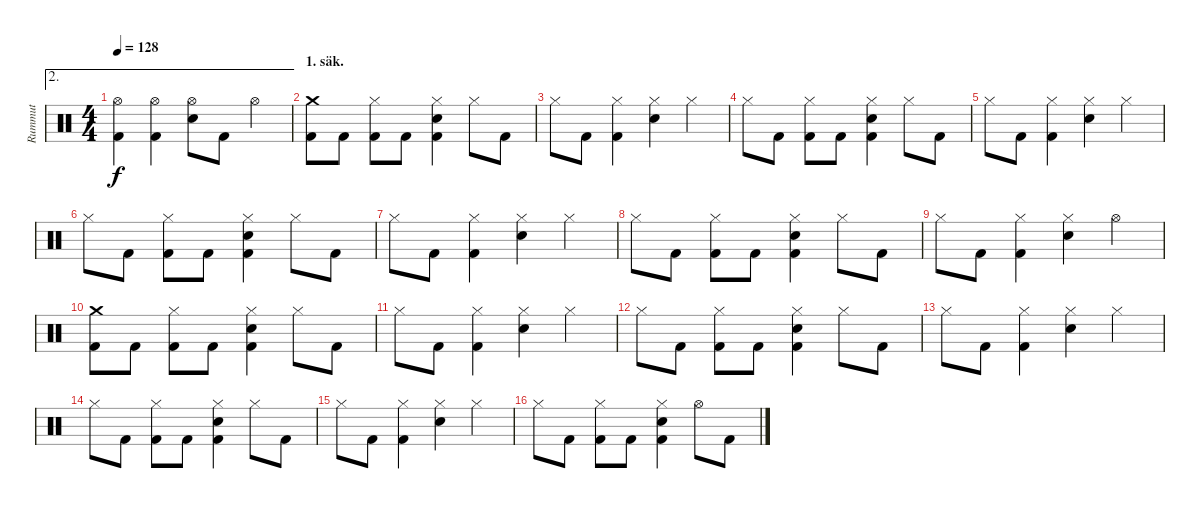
\track ("Rummut" "Rummut") {instrument percussion}
\staff {score}
\articulation defaults
\ae 2
\ts (4 4)
\tempo 128
\clef neutral
\ks c
("Kick (hit) 2" "Hi-Hat (open)").4{dy f} ("Kick (hit) 2" "Hi-Hat (open)").4 ("Hi-Hat (open)" "Snare (hit) 2").8 "Kick (hit) 2".8 "Hi-Hat (open)".4 |
\section ("" "1. säk.")
("Kick (hit) 2" "Crash medium (hit)").8 "Kick (hit) 2".8 ("Kick (hit) 2" "Hi-Hat (closed)").8 "Kick (hit) 2".8 ("Kick (hit) 2" "Hi-Hat (closed)" "Snare (hit) 2").4 "Hi-Hat (closed)".8 "Kick (hit) 2".8 |
"Hi-Hat (closed)".8 "Kick (hit) 2".8 ("Kick (hit) 2" "Hi-Hat (closed)").4 ("Hi-Hat (closed)" "Snare (hit) 2").4 "Hi-Hat (closed)".4 |
"Hi-Hat (closed)".8 "Kick (hit) 2".8 ("Kick (hit) 2" "Hi-Hat (closed)").8 "Kick (hit) 2".8 ("Kick (hit) 2" "Hi-Hat (closed)" "Snare (hit) 2").4 "Hi-Hat (closed)".8 "Kick (hit) 2".8 |
"Hi-Hat (closed)".8 "Kick (hit) 2".8 ("Kick (hit) 2" "Hi-Hat (closed)").4 ("Hi-Hat (closed)" "Snare (hit) 2").4 "Hi-Hat (closed)".4 |
"Hi-Hat (closed)".8 "Kick (hit) 2".8 ("Kick (hit) 2" "Hi-Hat (closed)").8 "Kick (hit) 2".8 ("Kick (hit) 2" "Hi-Hat (closed)" "Snare (hit) 2").4 "Hi-Hat (closed)".8 "Kick (hit) 2".8 |
"Hi-Hat (closed)".8 "Kick (hit) 2".8 ("Kick (hit) 2" "Hi-Hat (closed)").4 ("Hi-Hat (closed)" "Snare (hit) 2").4 "Hi-Hat (closed)".4 |
"Hi-Hat (closed)".8 "Kick (hit) 2".8 ("Kick (hit) 2" "Hi-Hat (closed)").8 "Kick (hit) 2".8 ("Kick (hit) 2" "Hi-Hat (closed)" "Snare (hit) 2").4 "Hi-Hat (closed)".8 "Kick (hit) 2".8 |
"Hi-Hat (closed)".8 "Kick (hit) 2".8 ("Kick (hit) 2" "Hi-Hat (closed)").4 ("Hi-Hat (closed)" "Snare (hit) 2").4 "Hi-Hat (open)".4 |
("Kick (hit) 2" "Crash medium (hit)").8 "Kick (hit) 2".8 ("Kick (hit) 2" "Hi-Hat (closed)").8 "Kick (hit) 2".8 ("Kick (hit) 2" "Hi-Hat (closed)" "Snare (hit) 2").4 "Hi-Hat (closed)".8 "Kick (hit) 2".8 |
"Hi-Hat (closed)".8 "Kick (hit) 2".8 ("Kick (hit) 2" "Hi-Hat (closed)").4 ("Hi-Hat (closed)" "Snare (hit) 2").4 "Hi-Hat (closed)".4 |
"Hi-Hat (closed)".8 "Kick (hit) 2".8 ("Kick (hit) 2" "Hi-Hat (closed)").8 "Kick (hit) 2".8 ("Kick (hit) 2" "Hi-Hat (closed)" "Snare (hit) 2").4 "Hi-Hat (closed)".8 "Kick (hit) 2".8 |
"Hi-Hat (closed)".8 "Kick (hit) 2".8 ("Kick (hit) 2" "Hi-Hat (closed)").4 ("Hi-Hat (closed)" "Snare (hit) 2").4 "Hi-Hat (closed)".4 |
"Hi-Hat (closed)".8 "Kick (hit) 2".8 ("Kick (hit) 2" "Hi-Hat (closed)").8 "Kick (hit) 2".8 ("Kick (hit) 2" "Hi-Hat (closed)" "Snare (hit) 2").4 "Hi-Hat (closed)".8 "Kick (hit) 2".8 |
"Hi-Hat (closed)".8 "Kick (hit) 2".8 ("Kick (hit) 2" "Hi-Hat (closed)").4 ("Hi-Hat (closed)" "Snare (hit) 2").4 "Hi-Hat (closed)".4 |
"Hi-Hat (closed)".8 "Kick (hit) 2".8 ("Kick (hit) 2" "Hi-Hat (closed)").8 "Kick (hit) 2".8 ("Kick (hit) 2" "Hi-Hat (closed)" "Snare (hit) 2").4 "Hi-Hat (open)".8 "Kick (hit) 2".8
